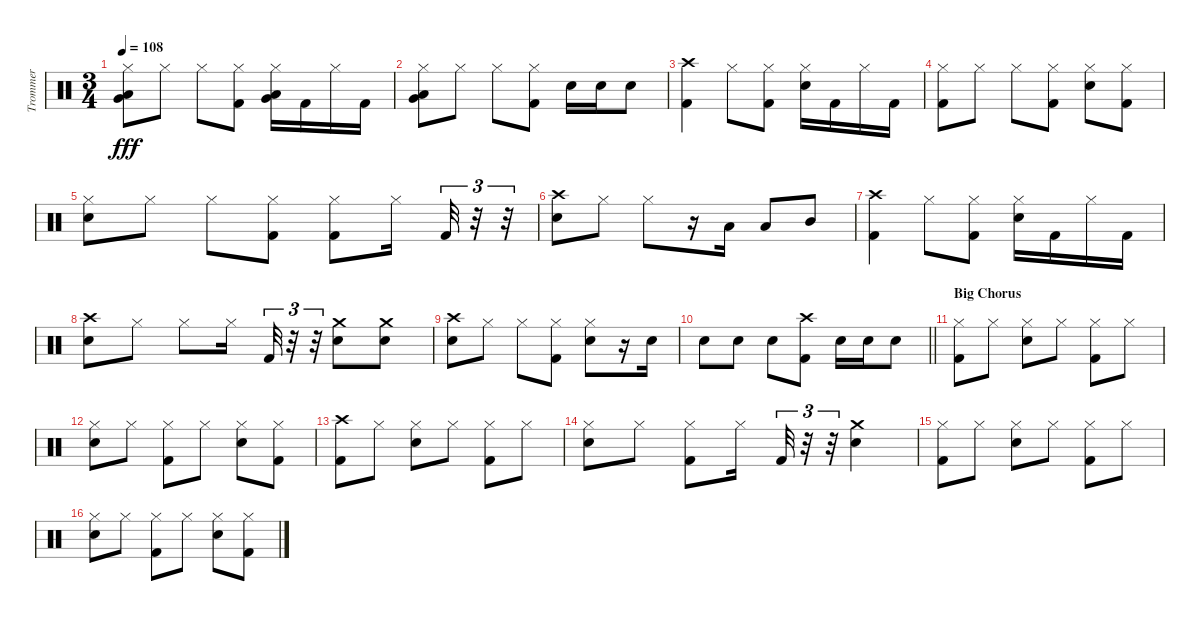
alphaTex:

\track ("Trommer" "Trommer") {instrument percussion}
\staff {score}
\articulation defaults
\ts (3 4)
\tempo 108
\clef neutral
\ks c
("Hi-Hat (closed)" "Low Tom (hit)" "Very Low Tom (hit)").8{dy fff} "Hi-Hat (closed)".8 "Hi-Hat (closed)".8 ("Hi-Hat (closed)" "Kick (hit) 2").8 ("Hi-Hat (closed)" "Low Tom (hit)" "Very Low Tom (hit)").16 "Kick (hit) 2".16 "Hi-Hat (closed)".16 "Kick (hit) 2".16 |
("Hi-Hat (closed)" "Low Tom (hit)" "Very Low Tom (hit)").8 "Hi-Hat (closed)".8 "Hi-Hat (closed)".8 ("Hi-Hat (closed)" "Kick (hit) 2").8 "Electric Snare (hit)".16 "Electric Snare (hit)".16 "Electric Snare (hit)".8 |
("Crash high (hit)" "Kick (hit) 2").4 "Hi-Hat (closed)".8 ("Hi-Hat (closed)" "Kick (hit) 2").8 ("Hi-Hat (closed)" "Electric Snare (hit)").16 "Kick (hit) 2".16 "Hi-Hat (closed)".16 "Kick (hit) 2".16 |
("Hi-Hat (closed)" "Kick (hit) 2").8 "Hi-Hat (closed)".8 "Hi-Hat (closed)".8 ("Hi-Hat (closed)" "Kick (hit) 2").8 ("Hi-Hat (closed)" "Electric Snare (hit)").8 ("Hi-Hat (closed)" "Kick (hit) 2").8 |
("Hi-Hat (closed)" "Electric Snare (hit)").8 "Hi-Hat (closed)".8 "Hi-Hat (closed)".8 ("Hi-Hat (closed)" "Kick (hit) 2").8 ("Hi-Hat (closed)" "Kick (hit) 2").8 "Hi-Hat (closed)".16 "Kick (hit) 2".32{tu (3 2)} r.32{tu (3 2)} r.32{tu (3 2)} |
("Crash high (hit)" "Electric Snare (hit)").8 "Hi-Hat (closed)".8 "Hi-Hat (closed)".8 r.16 "Low Tom (hit)".16 "Low Tom (hit)".8 "Mid Tom (hit)".8 |
("Crash high (hit)" "Kick (hit) 2").4 "Hi-Hat (closed)".8 ("Hi-Hat (closed)" "Kick (hit) 2").8 ("Hi-Hat (closed)" "Electric Snare (hit)").16 "Kick (hit) 2".16 "Hi-Hat (closed)".16 "Kick (hit) 2".16 |
("Crash high (hit)" "Electric Snare (hit)").8 "Hi-Hat (closed)".8 "Hi-Hat (closed)".8 "Hi-Hat (closed)".16 "Kick (hit) 2".32{tu (3 2)} r.32{tu (3 2)} r.32{tu (3 2)} ("Crash medium (hit)" "Electric Snare (hit)").8 ("Crash medium (hit)" "Electric Snare (hit)").8 |
("Crash high (hit)" "Electric Snare (hit)").8 "Hi-Hat (closed)".8 "Hi-Hat (closed)".8 ("Hi-Hat (closed)" "Kick (hit) 2").8 ("Hi-Hat (closed)" "Electric Snare (hit)").8 r.16 "Electric Snare (hit)".16 |
\barLineRight lightlight "Electric Snare (hit)".8 "Electric Snare (hit)".8 "Electric Snare (hit)".8
("Crash high (hit)" "Kick (hit) 2").8 "Electric Snare (hit)".16 "Electric Snare (hit)".16 "Electric Snare (hit)".8 |
\section ("" "Big Chorus")
("Hi-Hat (closed)" "Kick (hit) 2").8 "Hi-Hat (closed)".8 ("Hi-Hat (closed)" "Electric Snare (hit)").8 "Hi-Hat (closed)".8 ("Hi-Hat (closed)" "Kick (hit) 2").8 "Hi-Hat (closed)".8 |
("Hi-Hat (closed)" "Electric Snare (hit)").8 "Hi-Hat (closed)".8 ("Hi-Hat (closed)" "Kick (hit) 2").8 "Hi-Hat (closed)".8 ("Hi-Hat (closed)" "Electric Snare (hit)").8 ("Hi-Hat (closed)" "Kick (hit) 2").8 |
("Crash high (hit)" "Kick (hit) 2").8 "Hi-Hat (closed)".8 ("Hi-Hat (closed)" "Electric Snare (hit)").8 "Hi-Hat (closed)".8 ("Hi-Hat (closed)" "Kick (hit) 2").8 "Hi-Hat (closed)".8 |
("Hi-Hat (closed)" "Electric Snare (hit)").8 "Hi-Hat (closed)".8 ("Hi-Hat (closed)" "Kick (hit) 2").8 "Hi-Hat (closed)".16 "Kick (hit) 2".32{tu (3 2)} r.32{tu (3 2)} r.32{tu (3 2)} ("Crash medium (hit)" "Electric Snare (hit)").4 |
("Hi-Hat (closed)" "Kick (hit) 2").8 "Hi-Hat (closed)".8 ("Hi-Hat (closed)" "Electric Snare (hit)").8 "Hi-Hat (closed)".8 ("Hi-Hat (closed)" "Kick (hit) 2").8 "Hi-Hat (closed)".8 |
("Hi-Hat (closed)" "Electric Snare (hit)").8 "Hi-Hat (closed)".8 ("Hi-Hat (closed)" "Kick (hit) 2").8 "Hi-Hat (closed)".8 ("Hi-Hat (closed)" "Electric Snare (hit)").8 ("Hi-Hat (closed)" "Kick (hit) 2").8
